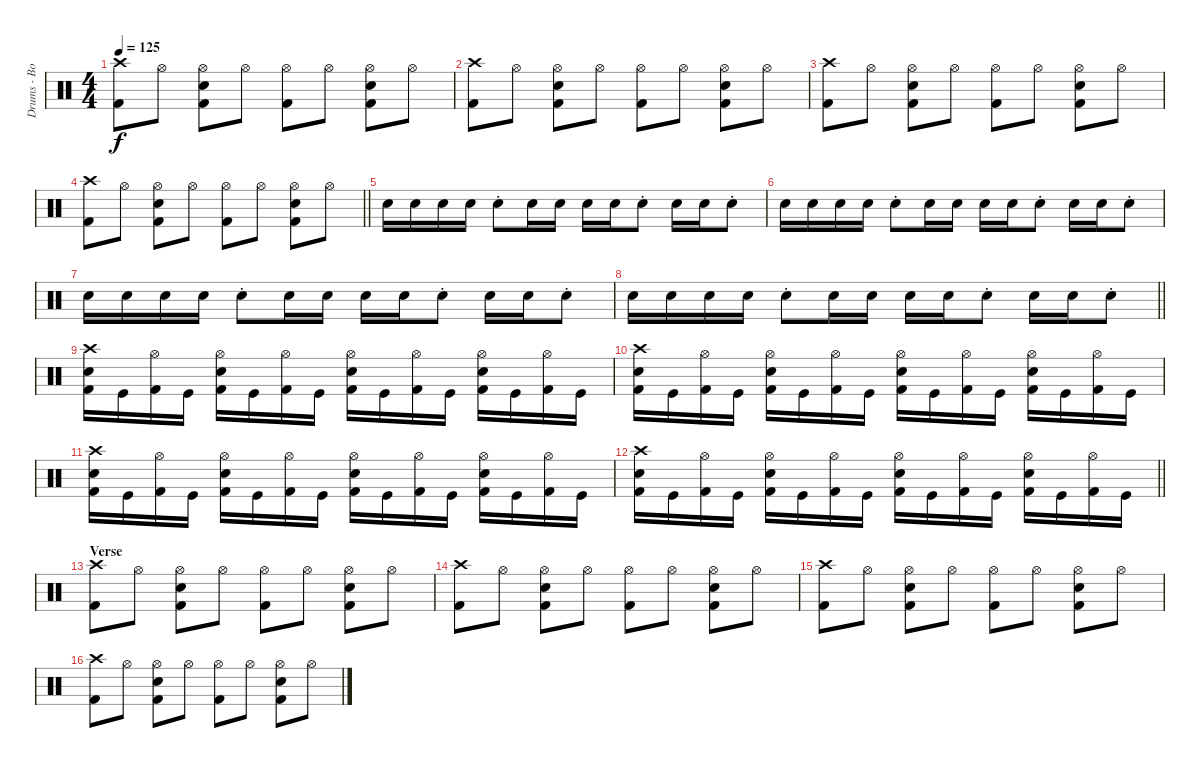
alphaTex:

\track ("Drums - Bobby Schottkowski" "Drums - Bo") {instrument percussion}
\staff {score}
\articulation defaults
\ts (4 4)
\tempo 125
\clef neutral
\ks c
("Kick (hit) 2" "Crash high (hit)").8{dy f} "Hi-Hat (open)".8 ("Kick (hit) 2" "Snare (hit) 2" "Hi-Hat (open)").8 "Hi-Hat (open)".8 ("Kick (hit) 2" "Hi-Hat (open)").8 "Hi-Hat (open)".8 ("Kick (hit) 2" "Snare (hit) 2" "Hi-Hat (open)").8 "Hi-Hat (open)".8 |
("Kick (hit) 2" "Crash high (hit)").8 "Hi-Hat (open)".8 ("Kick (hit) 2" "Snare (hit) 2" "Hi-Hat (open)").8 "Hi-Hat (open)".8 ("Kick (hit) 2" "Hi-Hat (open)").8 "Hi-Hat (open)".8 ("Kick (hit) 2" "Snare (hit) 2" "Hi-Hat (open)").8 "Hi-Hat (open)".8 |
("Kick (hit) 2" "Crash high (hit)").8 "Hi-Hat (open)".8 ("Kick (hit) 2" "Snare (hit) 2" "Hi-Hat (open)").8 "Hi-Hat (open)".8 ("Kick (hit) 2" "Hi-Hat (open)").8 "Hi-Hat (open)".8 ("Kick (hit) 2" "Snare (hit) 2" "Hi-Hat (open)").8 "Hi-Hat (open)".8 |
\barLineRight lightlight
("Kick (hit) 2" "Crash high (hit)").8 "Hi-Hat (open)".8 ("Kick (hit) 2" "Snare (hit) 2" "Hi-Hat (open)").8 "Hi-Hat (open)".8 ("Kick (hit) 2" "Hi-Hat (open)").8 "Hi-Hat (open)".8 ("Kick (hit) 2" "Snare (hit) 2" "Hi-Hat (open)").8 "Hi-Hat (open)".8 |
"Snare (hit) 2".16 "Snare (hit) 2".16 "Snare (hit) 2".16 "Snare (hit) 2".16 "Snare (hit) 2"{st}.8 "Snare (hit) 2".16 "Snare (hit) 2".16 "Snare (hit) 2".16 "Snare (hit) 2".16 "Snare (hit) 2"{st}.8 "Snare (hit) 2".16 "Snare (hit) 2".16 "Snare (hit) 2"{st}.8 |
"Snare (hit) 2".16 "Snare (hit) 2".16 "Snare (hit) 2".16 "Snare (hit) 2".16 "Snare (hit) 2"{st}.8 "Snare (hit) 2".16 "Snare (hit) 2".16 "Snare (hit) 2".16 "Snare (hit) 2".16 "Snare (hit) 2"{st}.8 "Snare (hit) 2".16 "Snare (hit) 2".16 "Snare (hit) 2"{st}.8 |
"Snare (hit) 2".16 "Snare (hit) 2".16 "Snare (hit) 2".16 "Snare (hit) 2".16 "Snare (hit) 2"{st}.8 "Snare (hit) 2".16 "Snare (hit) 2".16 "Snare (hit) 2".16 "Snare (hit) 2".16 "Snare (hit) 2"{st}.8 "Snare (hit) 2".16 "Snare (hit) 2".16 "Snare (hit) 2"{st}.8 |
\barLineRight lightlight "Snare (hit) 2".16 "Snare (hit) 2".16 "Snare (hit) 2".16 "Snare (hit) 2".16 "Snare (hit) 2"{st}.8 "Snare (hit) 2".16 "Snare (hit) 2".16 "Snare (hit) 2".16 "Snare (hit) 2".16 "Snare (hit) 2"{st}.8 "Snare (hit) 2".16 "Snare (hit) 2".16 "Snare (hit) 2"{st}.8
|
("Kick (hit) 2" "Snare (hit) 2" "Crash high (hit)").16 "Kick (hit)".16 ("Kick (hit) 2" "Hi-Hat (open)").16 "Kick (hit)".16 ("Kick (hit) 2" "Snare (hit) 2" "Hi-Hat (open)").16 "Kick (hit)".16 ("Kick (hit) 2" "Hi-Hat (open)").16 "Kick (hit)".16 ("Kick (hit) 2" "Snare (hit) 2" "Hi-Hat (open)").16 "Kick (hit)".16 ("Kick (hit) 2" "Hi-Hat (open)").16 "Kick (hit)".16 ("Kick (hit) 2" "Snare (hit) 2" "Hi-Hat (open)").16 "Kick (hit)".16 ("Kick (hit) 2" "Hi-Hat (open)").16 "Kick (hit)".16 |
("Kick (hit) 2" "Snare (hit) 2" "Crash high (hit)").16 "Kick (hit)".16 ("Kick (hit) 2" "Hi-Hat (open)").16 "Kick (hit)".16 ("Kick (hit) 2" "Snare (hit) 2" "Hi-Hat (open)").16 "Kick (hit)".16 ("Kick (hit) 2" "Hi-Hat (open)").16 "Kick (hit)".16 ("Kick (hit) 2" "Snare (hit) 2" "Hi-Hat (open)").16 "Kick (hit)".16 ("Kick (hit) 2" "Hi-Hat (open)").16 "Kick (hit)".16 ("Kick (hit) 2" "Snare (hit) 2" "Hi-Hat (open)").16 "Kick (hit)".16 ("Kick (hit) 2" "Hi-Hat (open)").16 "Kick (hit)".16 |
("Kick (hit) 2" "Snare (hit) 2" "Crash high (hit)").16 "Kick (hit)".16 ("Kick (hit) 2" "Hi-Hat (open)").16 "Kick (hit)".16 ("Kick (hit) 2" "Snare (hit) 2" "Hi-Hat (open)").16 "Kick (hit)".16 ("Kick (hit) 2" "Hi-Hat (open)").16 "Kick (hit)".16 ("Kick (hit) 2" "Snare (hit) 2" "Hi-Hat (open)").16 "Kick (hit)".16 ("Kick (hit) 2" "Hi-Hat (open)").16 "Kick (hit)".16 ("Kick (hit) 2" "Snare (hit) 2" "Hi-Hat (open)").16 "Kick (hit)".16 ("Kick (hit) 2" "Hi-Hat (open)").16 "Kick (hit)".16 |
\barLineRight lightlight
("Kick (hit) 2" "Snare (hit) 2" "Crash high (hit)").16 "Kick (hit)".16 ("Kick (hit) 2" "Hi-Hat (open)").16 "Kick (hit)".16 ("Kick (hit) 2" "Snare (hit) 2" "Hi-Hat (open)").16 "Kick (hit)".16 ("Kick (hit) 2" "Hi-Hat (open)").16 "Kick (hit)".16 ("Kick (hit) 2" "Snare (hit) 2" "Hi-Hat (open)").16 "Kick (hit)".16 ("Kick (hit) 2" "Hi-Hat (open)").16 "Kick (hit)".16 ("Kick (hit) 2" "Snare (hit) 2" "Hi-Hat (open)").16 "Kick (hit)".16 ("Kick (hit) 2" "Hi-Hat (open)").16 "Kick (hit)".16 |
\section ("" "Verse")
("Kick (hit) 2" "Crash high (hit)").8 "Hi-Hat (open)".8 ("Kick (hit) 2" "Snare (hit) 2" "Hi-Hat (open)").8 "Hi-Hat (open)".8 ("Kick (hit) 2" "Hi-Hat (open)").8 "Hi-Hat (open)".8 ("Kick (hit) 2" "Snare (hit) 2" "Hi-Hat (open)").8 "Hi-Hat (open)".8 |
("Kick (hit) 2" "Crash high (hit)").8 "Hi-Hat (open)".8 ("Kick (hit) 2" "Snare (hit) 2" "Hi-Hat (open)").8 "Hi-Hat (open)".8 ("Kick (hit) 2" "Hi-Hat (open)").8 "Hi-Hat (open)".8 ("Kick (hit) 2" "Snare (hit) 2" "Hi-Hat (open)").8 "Hi-Hat (open)".8 |
("Kick (hit) 2" "Crash high (hit)").8 "Hi-Hat (open)".8 ("Kick (hit) 2" "Snare (hit) 2" "Hi-Hat (open)").8 "Hi-Hat (open)".8 ("Kick (hit) 2" "Hi-Hat (open)").8 "Hi-Hat (open)".8 ("Kick (hit) 2" "Snare (hit) 2" "Hi-Hat (open)").8 "Hi-Hat (open)".8 |
("Kick (hit) 2" "Crash high (hit)").8 "Hi-Hat (open)".8 ("Kick (hit) 2" "Snare (hit) 2" "Hi-Hat (open)").8 "Hi-Hat (open)".8 ("Kick (hit) 2" "Hi-Hat (open)").8 "Hi-Hat (open)".8 ("Kick (hit) 2" "Snare (hit) 2" "Hi-Hat (open)").8 "Hi-Hat (open)".8
